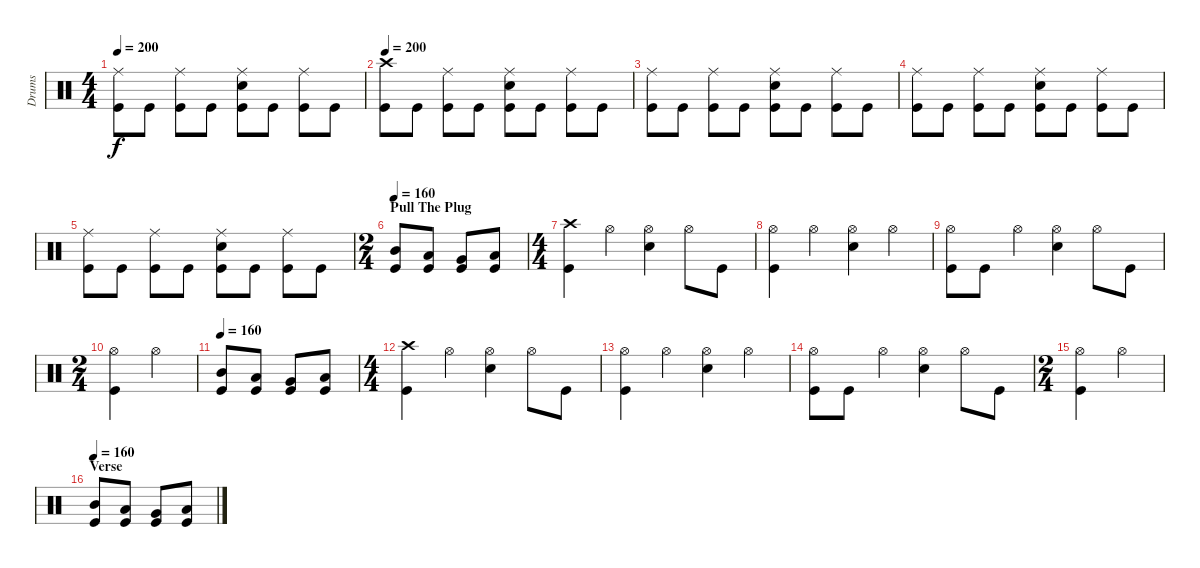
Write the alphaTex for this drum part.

\track ("Drums" "Drums") {instrument percussion}
\staff {score}
\articulation defaults
\ts (4 4)
\tempo 200
\clef neutral
\ks c
("Ride (middle)" "Kick (hit)").8{dy f} "Kick (hit)".8 ("Ride (middle)" "Kick (hit)").8 "Kick (hit)".8 ("Ride (middle)" "Snare (hit) 2" "Kick (hit)").8 "Kick (hit)".8 ("Ride (middle)" "Kick (hit)").8 "Kick (hit)".8 |
\tempo 200
("Crash high (hit)" "Kick (hit)").8 "Kick (hit)".8 ("Ride (middle)" "Kick (hit)").8 "Kick (hit)".8 ("Ride (middle)" "Snare (hit) 2" "Kick (hit)").8 "Kick (hit)".8 ("Ride (middle)" "Kick (hit)").8 "Kick (hit)".8 |
("Ride (middle)" "Kick (hit)").8 "Kick (hit)".8 ("Ride (middle)" "Kick (hit)").8 "Kick (hit)".8 ("Ride (middle)" "Snare (hit) 2" "Kick (hit)").8 "Kick (hit)".8 ("Ride (middle)" "Kick (hit)").8 "Kick (hit)".8 |
("Ride (middle)" "Kick (hit)").8 "Kick (hit)".8 ("Ride (middle)" "Kick (hit)").8 "Kick (hit)".8 ("Ride (middle)" "Snare (hit) 2" "Kick (hit)").8 "Kick (hit)".8 ("Ride (middle)" "Kick (hit)").8 "Kick (hit)".8 |
("Ride (middle)" "Kick (hit)").8 "Kick (hit)".8 ("Ride (middle)" "Kick (hit)").8 "Kick (hit)".8 ("Ride (middle)" "Snare (hit) 2" "Kick (hit)").8 "Kick (hit)".8 ("Ride (middle)" "Kick (hit)").8 "Kick (hit)".8 |
\ts (2 4)
\section ("" "Pull The Plug")
\tempo 160
("Mid Tom (hit)" "Kick (hit)").8 ("Low Tom (hit)" "Kick (hit)").8 ("Very Low Tom (hit)" "Kick (hit)").8 ("Low Floor Tom (hit)" "Kick (hit)").8 |
\ts (4 4)
("Crash high (hit)" "Kick (hit)").4 "Hi-Hat (open)".4 ("Hi-Hat (open)" "Snare (hit) 2").4 "Hi-Hat (open)".8 "Kick (hit)".8 |
("Hi-Hat (open)" "Kick (hit)").4 "Hi-Hat (open)".4 ("Hi-Hat (open)" "Snare (hit) 2").4 "Hi-Hat (open)".4 |
("Hi-Hat (open)" "Kick (hit)").8 "Kick (hit)".8 "Hi-Hat (open)".4 ("Hi-Hat (open)" "Snare (hit) 2").4 "Hi-Hat (open)".8 "Kick (hit)".8 |
\ts (2 4)
("Hi-Hat (open)" "Kick (hit)").4 "Hi-Hat (open)".4 |
\tempo 160
("Mid Tom (hit)" "Kick (hit)").8 ("Low Tom (hit)" "Kick (hit)").8 ("Very Low Tom (hit)" "Kick (hit)").8 ("Low Floor Tom (hit)" "Kick (hit)").8 |
\ts (4 4)
("Crash high (hit)" "Kick (hit)").4 "Hi-Hat (open)".4 ("Hi-Hat (open)" "Snare (hit) 2").4 "Hi-Hat (open)".8 "Kick (hit)".8 |
("Hi-Hat (open)" "Kick (hit)").4 "Hi-Hat (open)".4 ("Hi-Hat (open)" "Snare (hit) 2").4 "Hi-Hat (open)".4 |
("Hi-Hat (open)" "Kick (hit)").8 "Kick (hit)".8 "Hi-Hat (open)".4 ("Hi-Hat (open)" "Snare (hit) 2").4 "Hi-Hat (open)".8 "Kick (hit)".8 |
\ts (2 4)
("Hi-Hat (open)" "Kick (hit)").4 "Hi-Hat (open)".4 |
\section ("" "Verse")
\tempo 160
("Mid Tom (hit)" "Kick (hit)").8 ("Low Tom (hit)" "Kick (hit)").8 ("Very Low Tom (hit)" "Kick (hit)").8 ("Low Floor Tom (hit)" "Kick (hit)").8
